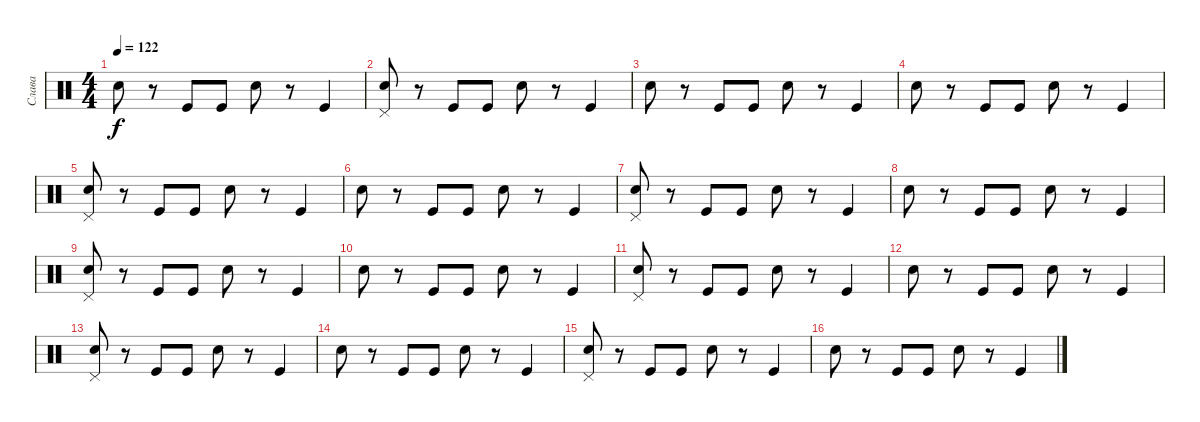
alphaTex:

\track ("Слава" "Слава") {instrument percussion}
\staff {score}
\articulation defaults
\ts (4 4)
\tempo 122
\clef neutral
\ks c "Electric Snare (hit)".8{dy f}
r.8 "Kick (hit)".8 "Kick (hit)".8 "Electric Snare (hit)".8 r.8 "Kick (hit)".4 |
("Electric Snare (hit)" "Pedal Hi-Hat (hit)").8 r.8 "Kick (hit)".8 "Kick (hit)".8 "Electric Snare (hit)".8 r.8 "Kick (hit)".4 |
"Electric Snare (hit)".8 r.8 "Kick (hit)".8 "Kick (hit)".8 "Electric Snare (hit)".8 r.8 "Kick (hit)".4 |
"Electric Snare (hit)".8 r.8 "Kick (hit)".8 "Kick (hit)".8 "Electric Snare (hit)".8 r.8 "Kick (hit)".4 |
("Electric Snare (hit)" "Pedal Hi-Hat (hit)").8 r.8 "Kick (hit)".8 "Kick (hit)".8 "Electric Snare (hit)".8 r.8 "Kick (hit)".4 |
"Electric Snare (hit)".8 r.8 "Kick (hit)".8 "Kick (hit)".8 "Electric Snare (hit)".8 r.8 "Kick (hit)".4 |
("Electric Snare (hit)" "Pedal Hi-Hat (hit)").8 r.8 "Kick (hit)".8 "Kick (hit)".8 "Electric Snare (hit)".8 r.8 "Kick (hit)".4 |
"Electric Snare (hit)".8 r.8 "Kick (hit)".8 "Kick (hit)".8 "Electric Snare (hit)".8 r.8 "Kick (hit)".4 |
("Electric Snare (hit)" "Pedal Hi-Hat (hit)").8 r.8 "Kick (hit)".8 "Kick (hit)".8 "Electric Snare (hit)".8 r.8 "Kick (hit)".4 |
"Electric Snare (hit)".8 r.8 "Kick (hit)".8 "Kick (hit)".8 "Electric Snare (hit)".8 r.8 "Kick (hit)".4 |
("Electric Snare (hit)" "Pedal Hi-Hat (hit)").8 r.8 "Kick (hit)".8 "Kick (hit)".8 "Electric Snare (hit)".8 r.8 "Kick (hit)".4 |
"Electric Snare (hit)".8 r.8 "Kick (hit)".8 "Kick (hit)".8 "Electric Snare (hit)".8 r.8 "Kick (hit)".4 |
("Electric Snare (hit)" "Pedal Hi-Hat (hit)").8 r.8 "Kick (hit)".8 "Kick (hit)".8 "Electric Snare (hit)".8 r.8 "Kick (hit)".4 |
"Electric Snare (hit)".8 r.8 "Kick (hit)".8 "Kick (hit)".8 "Electric Snare (hit)".8 r.8 "Kick (hit)".4 |
("Electric Snare (hit)" "Pedal Hi-Hat (hit)").8 r.8 "Kick (hit)".8 "Kick (hit)".8 "Electric Snare (hit)".8 r.8 "Kick (hit)".4 |
"Electric Snare (hit)".8 r.8 "Kick (hit)".8 "Kick (hit)".8 "Electric Snare (hit)".8 r.8 "Kick (hit)".4
